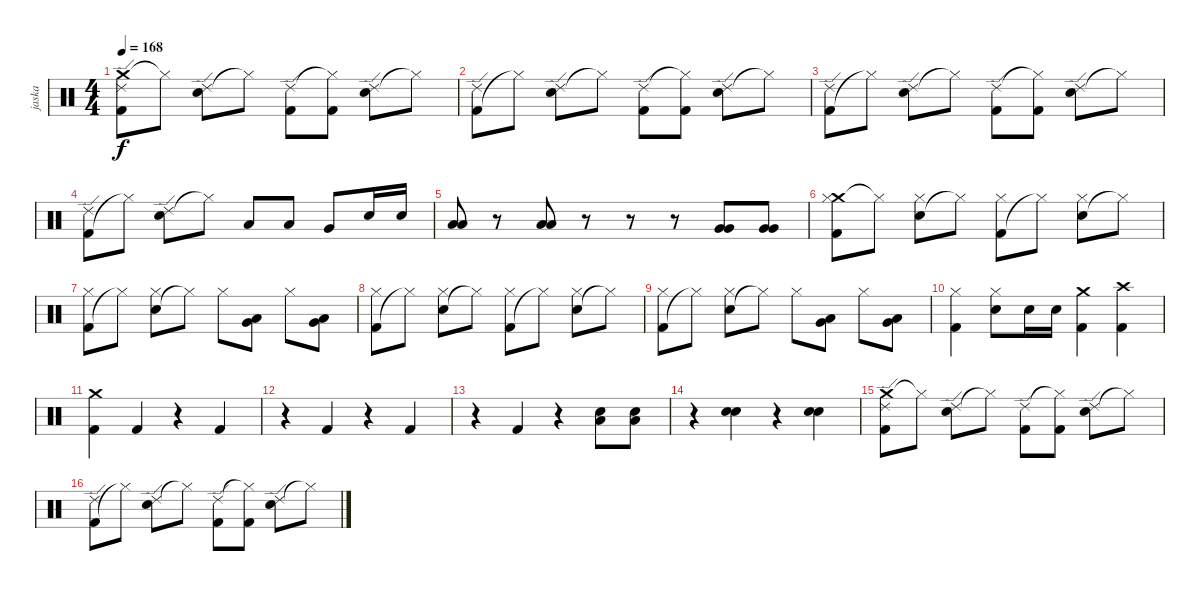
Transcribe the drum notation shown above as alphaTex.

\track ("jaska" "jaska") {instrument percussion}
\staff
\articulation defaults
\ts (4 4)
\tempo 168
\clef neutral
\ks c
("Crash medium (hit)" "Kick (hit) 2" "Ride (edge) 2").8{dy f} "Hi-Hat (closed)"{t}.8 ("Electric Snare (hit)" "Ride (edge) 2").8 "Hi-Hat (closed)"{t}.8 ("Kick (hit) 2" "Ride (edge) 2").8 ("Kick (hit) 2" "Hi-Hat (closed)"{t}).8 ("Electric Snare (hit)" "Ride (edge) 2").8 "Hi-Hat (closed)"{t}.8 |
("Kick (hit) 2" "Ride (edge) 2").8 "Hi-Hat (closed)"{t}.8 ("Electric Snare (hit)" "Ride (edge) 2").8 "Hi-Hat (closed)"{t}.8 ("Kick (hit) 2" "Ride (edge) 2").8 ("Kick (hit) 2" "Hi-Hat (closed)"{t}).8 ("Electric Snare (hit)" "Ride (edge) 2").8 "Hi-Hat (closed)"{t}.8 |
("Kick (hit) 2" "Ride (edge) 2").8 "Hi-Hat (closed)"{t}.8 ("Electric Snare (hit)" "Ride (edge) 2").8 "Hi-Hat (closed)"{t}.8 ("Kick (hit) 2" "Ride (edge) 2").8 ("Kick (hit) 2" "Hi-Hat (closed)"{t}).8 ("Electric Snare (hit)" "Ride (edge) 2").8 "Hi-Hat (closed)"{t}.8 |
("Kick (hit) 2" "Ride (edge) 2").8 "Hi-Hat (closed)"{t}.8 ("Electric Snare (hit)" "Ride (edge) 2").8 "Hi-Hat (closed)"{t}.8 "Low Tom (hit)".8 "Low Tom (hit)".8 "Very Low Tom (hit)".8 "Electric Snare (hit)".16 "Electric Snare (hit)".16 |
("Low Tom (hit)" "Low Tom (hit)").8 r.8 ("Low Tom (hit)" "Low Tom (hit)").8 r.8 r.8 r.8 ("Very Low Tom (hit)" "Very Low Tom (hit)").8 ("Very Low Tom (hit)" "Very Low Tom (hit)").8 |
("Crash medium (hit)" "Kick (hit) 2" "Hi-Hat (closed)").8 "Hi-Hat (closed)"{t}.8 ("Electric Snare (hit)" "Hi-Hat (closed)").8 "Hi-Hat (closed)"{t}.8 ("Kick (hit) 2" "Hi-Hat (closed)").8 "Hi-Hat (closed)"{t}.8 ("Electric Snare (hit)" "Hi-Hat (closed)").8 "Hi-Hat (closed)"{t}.8 |
("Kick (hit) 2" "Hi-Hat (closed)").8 "Hi-Hat (closed)"{t}.8 ("Electric Snare (hit)" "Hi-Hat (closed)").8 "Hi-Hat (closed)"{t}.8 "Hi-Hat (closed)".8 ("Low Tom (hit)" "Very Low Tom (hit)").8 "Hi-Hat (closed)".8 ("Low Tom (hit)" "Very Low Tom (hit)").8 |
("Kick (hit) 2" "Hi-Hat (closed)").8 "Hi-Hat (closed)"{t}.8 ("Electric Snare (hit)" "Hi-Hat (closed)").8 "Hi-Hat (closed)"{t}.8 ("Kick (hit) 2" "Hi-Hat (closed)").8 "Hi-Hat (closed)"{t}.8 ("Electric Snare (hit)" "Hi-Hat (closed)").8 "Hi-Hat (closed)"{t}.8 |
("Kick (hit) 2" "Hi-Hat (closed)").8 "Hi-Hat (closed)"{t}.8 ("Electric Snare (hit)" "Hi-Hat (closed)").8 "Hi-Hat (closed)"{t}.8 "Hi-Hat (closed)".8 ("Low Tom (hit)" "Very Low Tom (hit)").8 "Hi-Hat (closed)".8 ("Low Tom (hit)" "Very Low Tom (hit)").8 |
("Kick (hit) 2" "Hi-Hat (closed)").4 ("Electric Snare (hit)" "Hi-Hat (closed)").8 "Electric Snare (hit)".16 "Electric Snare (hit)".16 ("Crash medium (hit)" "Kick (hit) 2").4 ("Crash high (hit)" "Kick (hit) 2").4 |
("Kick (hit) 2" "Crash medium (hit)").4 "Kick (hit) 2".4 r.4 "Kick (hit) 2".4 |
r.4 "Kick (hit) 2".4 r.4 "Kick (hit) 2".4 |
r.4 "Kick (hit) 2".4 r.4 ("Low Tom (hit)" "Electric Snare (hit)").8 ("Low Tom (hit)" "Electric Snare (hit)").8 |
r.4 ("Electric Snare (hit)" "Electric Snare (hit)").4 r.4 ("Electric Snare (hit)" "Electric Snare (hit)").4 |
("Crash medium (hit)" "Kick (hit) 2" "Ride (edge) 2").8 "Hi-Hat (closed)"{t}.8 ("Electric Snare (hit)" "Ride (edge) 2").8 "Hi-Hat (closed)"{t}.8 ("Kick (hit) 2" "Ride (edge) 2").8 ("Kick (hit) 2" "Hi-Hat (closed)"{t}).8 ("Electric Snare (hit)" "Ride (edge) 2").8 "Hi-Hat (closed)"{t}.8 |
("Kick (hit) 2" "Ride (edge) 2").8 "Hi-Hat (closed)"{t}.8 ("Electric Snare (hit)" "Ride (edge) 2").8 "Hi-Hat (closed)"{t}.8 ("Kick (hit) 2" "Ride (edge) 2").8 ("Kick (hit) 2" "Hi-Hat (closed)"{t}).8 ("Electric Snare (hit)" "Ride (edge) 2").8 "Hi-Hat (closed)"{t}.8
